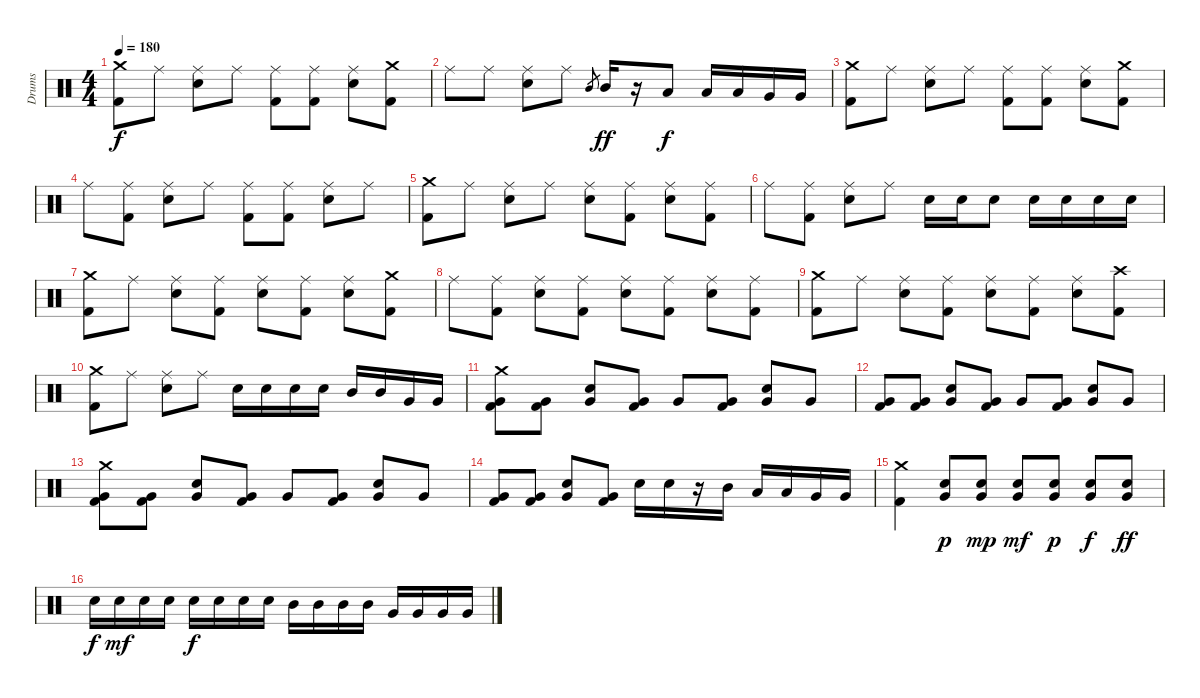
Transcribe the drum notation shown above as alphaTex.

\track ("Drums" "Drums") {instrument percussion}
\staff {score}
\articulation defaults
\ts (4 4)
\tempo 180
\clef neutral
\ks c
("Crash medium (hit)" "Kick (hit) 2").8{dy f} "Ride (middle)".8 ("Ride (middle)" "Electric Snare (hit)").8 "Ride (middle)".8 ("Ride (middle)" "Kick (hit) 2").8 ("Ride (middle)" "Kick (hit) 2").8 ("Ride (middle)" "Electric Snare (hit)").8 ("Crash medium (hit)" "Kick (hit) 2").8 |
"Ride (middle)".8 "Ride (middle)".8 ("Ride (middle)" "Electric Snare (hit)").8 "Ride (middle)".8 "Mid Tom (hit)".8{gr} "Mid Tom (hit)".16{dy ff} r.16 "Low Tom (hit)".8{dy f} "Low Tom (hit)".16 "Low Tom (hit)".16 "Very Low Tom (hit)".16 "Very Low Tom (hit)".16 |
("Crash medium (hit)" "Kick (hit) 2").8 "Ride (middle)".8 ("Ride (middle)" "Electric Snare (hit)").8 "Ride (middle)".8 ("Ride (middle)" "Kick (hit) 2").8 ("Ride (middle)" "Kick (hit) 2").8 ("Ride (middle)" "Electric Snare (hit)").8 ("Crash medium (hit)" "Kick (hit) 2").8 |
"Ride (middle)".8 ("Ride (middle)" "Kick (hit) 2").8 ("Ride (middle)" "Electric Snare (hit)").8 "Ride (middle)".8 ("Ride (middle)" "Kick (hit) 2").8 ("Ride (middle)" "Kick (hit) 2").8 ("Ride (middle)" "Electric Snare (hit)").8 "Ride (middle)".8 |
("Crash medium (hit)" "Kick (hit) 2").8 "Ride (middle)".8 ("Ride (middle)" "Electric Snare (hit)").8 "Ride (middle)".8 ("Ride (middle)" "Electric Snare (hit)").8 ("Ride (middle)" "Kick (hit) 2").8 ("Ride (middle)" "Electric Snare (hit)").8 ("Ride (middle)" "Kick (hit) 2").8 |
"Ride (middle)".8 ("Ride (middle)" "Kick (hit) 2").8 ("Ride (middle)" "Electric Snare (hit)").8 "Ride (middle)".8 "Electric Snare (hit)".16 "Electric Snare (hit)".16 "Electric Snare (hit)".8 "Electric Snare (hit)".16 "Electric Snare (hit)".16 "Electric Snare (hit)".16 "Electric Snare (hit)".16 |
("Crash medium (hit)" "Kick (hit) 2").8 "Ride (middle)".8 ("Ride (middle)" "Electric Snare (hit)").8 ("Ride (middle)" "Kick (hit) 2").8 ("Ride (middle)" "Electric Snare (hit)").8 ("Ride (middle)" "Kick (hit) 2").8 ("Ride (middle)" "Electric Snare (hit)").8 ("Crash medium (hit)" "Kick (hit) 2").8 |
"Ride (middle)".8 ("Ride (middle)" "Kick (hit) 2").8 ("Ride (middle)" "Electric Snare (hit)").8 ("Ride (middle)" "Kick (hit) 2").8 ("Ride (middle)" "Electric Snare (hit)").8 ("Ride (middle)" "Kick (hit) 2").8 ("Ride (middle)" "Electric Snare (hit)").8 ("Ride (middle)" "Kick (hit) 2").8 |
("Crash medium (hit)" "Kick (hit) 2").8 "Ride (middle)".8 ("Ride (middle)" "Electric Snare (hit)").8 ("Ride (middle)" "Kick (hit) 2").8 ("Ride (middle)" "Electric Snare (hit)").8 ("Ride (middle)" "Kick (hit) 2").8 ("Ride (middle)" "Electric Snare (hit)").8 ("Crash high (hit)" "Kick (hit) 2").8 |
("Crash medium (hit)" "Kick (hit) 2").8 "Ride (middle)".8 ("Ride (middle)" "Electric Snare (hit)").8 "Ride (middle)".8 "Electric Snare (hit)".16 "Electric Snare (hit)".16 "Electric Snare (hit)".16 "Electric Snare (hit)".16 "Mid Tom (hit)".16 "Mid Tom (hit)".16 "Very Low Tom (hit)".16 "Very Low Tom (hit)".16 |
("Crash medium (hit)" "Very Low Tom (hit)" "Kick (hit) 2").8 ("Very Low Tom (hit)" "Kick (hit) 2").8 ("Electric Snare (hit)" "Very Low Tom (hit)").8 ("Very Low Tom (hit)" "Kick (hit) 2").8 "Very Low Tom (hit)".8 ("Very Low Tom (hit)" "Kick (hit) 2").8 ("Electric Snare (hit)" "Very Low Tom (hit)").8 "Very Low Tom (hit)".8 |
("Very Low Tom (hit)" "Kick (hit) 2").8 ("Very Low Tom (hit)" "Kick (hit) 2").8 ("Electric Snare (hit)" "Very Low Tom (hit)").8 ("Very Low Tom (hit)" "Kick (hit) 2").8 "Very Low Tom (hit)".8 ("Very Low Tom (hit)" "Kick (hit) 2").8 ("Electric Snare (hit)" "Very Low Tom (hit)").8 "Very Low Tom (hit)".8 |
("Crash medium (hit)" "Very Low Tom (hit)" "Kick (hit) 2").8 ("Very Low Tom (hit)" "Kick (hit) 2").8 ("Electric Snare (hit)" "Very Low Tom (hit)").8 ("Very Low Tom (hit)" "Kick (hit) 2").8 "Very Low Tom (hit)".8 ("Very Low Tom (hit)" "Kick (hit) 2").8 ("Electric Snare (hit)" "Very Low Tom (hit)").8 "Very Low Tom (hit)".8 |
("Very Low Tom (hit)" "Kick (hit) 2").8 ("Very Low Tom (hit)" "Kick (hit) 2").8 ("Electric Snare (hit)" "Very Low Tom (hit)").8 ("Very Low Tom (hit)" "Kick (hit) 2").8 "Electric Snare (hit)".16 "Electric Snare (hit)".16 r.16 "Mid Tom (hit)".16 "Low Tom (hit)".16 "Low Tom (hit)".16 "Very Low Tom (hit)".16 "Very Low Tom (hit)".16 |
("Crash medium (hit)" "Kick (hit) 2").4 ("Very Low Tom (hit)" "Electric Snare (hit)").8{dy p} ("Very Low Tom (hit)" "Electric Snare (hit)").8{dy mp} ("Very Low Tom (hit)" "Electric Snare (hit)").8{dy mf} ("Very Low Tom (hit)" "Electric Snare (hit)").8{dy p} ("Very Low Tom (hit)" "Electric Snare (hit)").8{dy f} ("Very Low Tom (hit)" "Electric Snare (hit)").8{dy ff} |
"Electric Snare (hit)".16{dy f} "Electric Snare (hit)".16{dy mf} "Electric Snare (hit)".16 "Electric Snare (hit)".16 "Electric Snare (hit)".16{dy f} "Electric Snare (hit)".16 "Electric Snare (hit)".16 "Electric Snare (hit)".16 "Mid Tom (hit)".16 "Mid Tom (hit)".16 "Mid Tom (hit)".16 "Mid Tom (hit)".16 "Very Low Tom (hit)".16 "Very Low Tom (hit)".16 "Very Low Tom (hit)".16 "Very Low Tom (hit)".16
